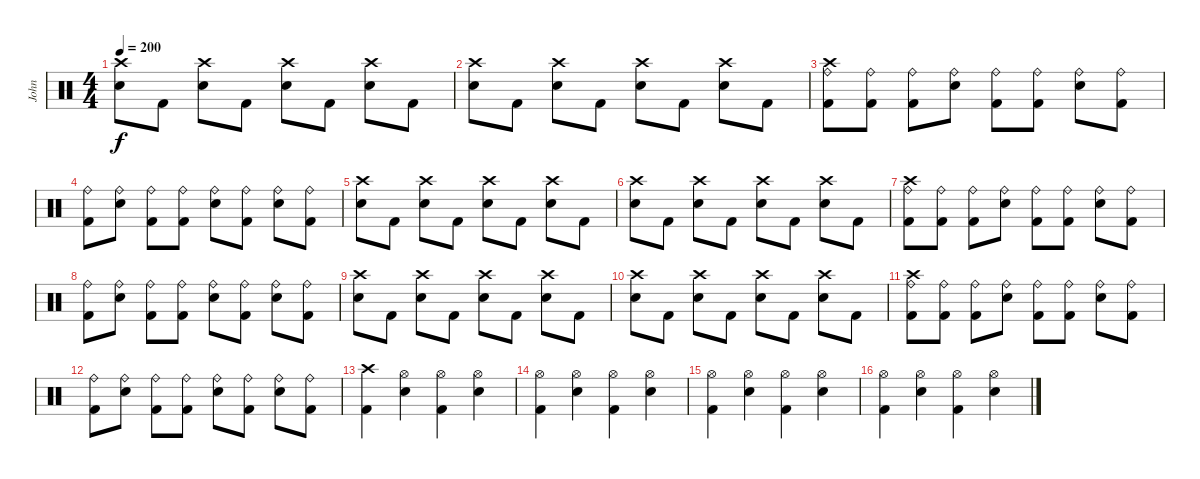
\track ("John" "John") {instrument percussion}
\staff {score}
\articulation defaults
\ts (4 4)
\tempo 200
\clef neutral
\ks c
("Crash high (hit)" "Electric Snare (hit)").8{dy f} "Kick (hit) 2".8 ("Crash high (hit)" "Electric Snare (hit)").8 "Kick (hit) 2".8 ("Crash high (hit)" "Electric Snare (hit)").8 "Kick (hit) 2".8 ("Crash high (hit)" "Electric Snare (hit)").8 "Kick (hit) 2".8 |
("Crash high (hit)" "Electric Snare (hit)").8 "Kick (hit) 2".8 ("Crash high (hit)" "Electric Snare (hit)").8 "Kick (hit) 2".8 ("Crash high (hit)" "Electric Snare (hit)").8 "Kick (hit) 2".8 ("Crash high (hit)" "Electric Snare (hit)").8 "Kick (hit) 2".8 |
("Ride (bell)" "Crash high (hit)" "Kick (hit) 2").8 ("Ride (bell)" "Kick (hit) 2").8 ("Ride (bell)" "Kick (hit) 2").8 ("Ride (bell)" "Electric Snare (hit)").8 ("Ride (bell)" "Kick (hit) 2").8 ("Ride (bell)" "Kick (hit) 2").8 ("Ride (bell)" "Electric Snare (hit)").8 ("Ride (bell)" "Kick (hit) 2").8 |
("Ride (bell)" "Kick (hit) 2").8 ("Ride (bell)" "Electric Snare (hit)").8 ("Ride (bell)" "Kick (hit) 2").8 ("Ride (bell)" "Kick (hit) 2").8 ("Ride (bell)" "Electric Snare (hit)").8 ("Ride (bell)" "Kick (hit) 2").8 ("Ride (bell)" "Electric Snare (hit)").8 ("Ride (bell)" "Kick (hit) 2").8 |
("Crash high (hit)" "Electric Snare (hit)").8 "Kick (hit) 2".8 ("Crash high (hit)" "Electric Snare (hit)").8 "Kick (hit) 2".8 ("Crash high (hit)" "Electric Snare (hit)").8 "Kick (hit) 2".8 ("Crash high (hit)" "Electric Snare (hit)").8 "Kick (hit) 2".8 |
("Crash high (hit)" "Electric Snare (hit)").8 "Kick (hit) 2".8 ("Crash high (hit)" "Electric Snare (hit)").8 "Kick (hit) 2".8 ("Crash high (hit)" "Electric Snare (hit)").8 "Kick (hit) 2".8 ("Crash high (hit)" "Electric Snare (hit)").8 "Kick (hit) 2".8 |
("Ride (bell)" "Crash high (hit)" "Kick (hit) 2").8 ("Ride (bell)" "Kick (hit) 2").8 ("Ride (bell)" "Kick (hit) 2").8 ("Ride (bell)" "Electric Snare (hit)").8 ("Ride (bell)" "Kick (hit) 2").8 ("Ride (bell)" "Kick (hit) 2").8 ("Ride (bell)" "Electric Snare (hit)").8 ("Ride (bell)" "Kick (hit) 2").8 |
("Ride (bell)" "Kick (hit) 2").8 ("Ride (bell)" "Electric Snare (hit)").8 ("Ride (bell)" "Kick (hit) 2").8 ("Ride (bell)" "Kick (hit) 2").8 ("Ride (bell)" "Electric Snare (hit)").8 ("Ride (bell)" "Kick (hit) 2").8 ("Ride (bell)" "Electric Snare (hit)").8 ("Ride (bell)" "Kick (hit) 2").8 |
("Crash high (hit)" "Electric Snare (hit)").8 "Kick (hit) 2".8 ("Crash high (hit)" "Electric Snare (hit)").8 "Kick (hit) 2".8 ("Crash high (hit)" "Electric Snare (hit)").8 "Kick (hit) 2".8 ("Crash high (hit)" "Electric Snare (hit)").8 "Kick (hit) 2".8 |
("Crash high (hit)" "Electric Snare (hit)").8 "Kick (hit) 2".8 ("Crash high (hit)" "Electric Snare (hit)").8 "Kick (hit) 2".8 ("Crash high (hit)" "Electric Snare (hit)").8 "Kick (hit) 2".8 ("Crash high (hit)" "Electric Snare (hit)").8 "Kick (hit) 2".8 |
("Ride (bell)" "Crash high (hit)" "Kick (hit) 2").8 ("Ride (bell)" "Kick (hit) 2").8 ("Ride (bell)" "Kick (hit) 2").8 ("Ride (bell)" "Electric Snare (hit)").8 ("Ride (bell)" "Kick (hit) 2").8 ("Ride (bell)" "Kick (hit) 2").8 ("Ride (bell)" "Electric Snare (hit)").8 ("Ride (bell)" "Kick (hit) 2").8 |
("Ride (bell)" "Kick (hit) 2").8 ("Ride (bell)" "Electric Snare (hit)").8 ("Ride (bell)" "Kick (hit) 2").8 ("Ride (bell)" "Kick (hit) 2").8 ("Ride (bell)" "Electric Snare (hit)").8 ("Ride (bell)" "Kick (hit) 2").8 ("Ride (bell)" "Electric Snare (hit)").8 ("Ride (bell)" "Kick (hit) 2").8 |
("Crash high (hit)" "Kick (hit) 2").4 ("Hi-Hat (open)" "Electric Snare (hit)").4 ("Hi-Hat (open)" "Kick (hit) 2").4 ("Hi-Hat (open)" "Electric Snare (hit)").4 |
("Hi-Hat (open)" "Kick (hit) 2").4 ("Hi-Hat (open)" "Electric Snare (hit)").4 ("Hi-Hat (open)" "Kick (hit) 2").4 ("Hi-Hat (open)" "Electric Snare (hit)").4 |
("Hi-Hat (open)" "Kick (hit) 2").4 ("Hi-Hat (open)" "Electric Snare (hit)").4 ("Hi-Hat (open)" "Kick (hit) 2").4 ("Hi-Hat (open)" "Electric Snare (hit)").4 |
("Hi-Hat (open)" "Kick (hit) 2").4 ("Hi-Hat (open)" "Electric Snare (hit)").4 ("Hi-Hat (open)" "Kick (hit) 2").4 ("Hi-Hat (open)" "Electric Snare (hit)").4
